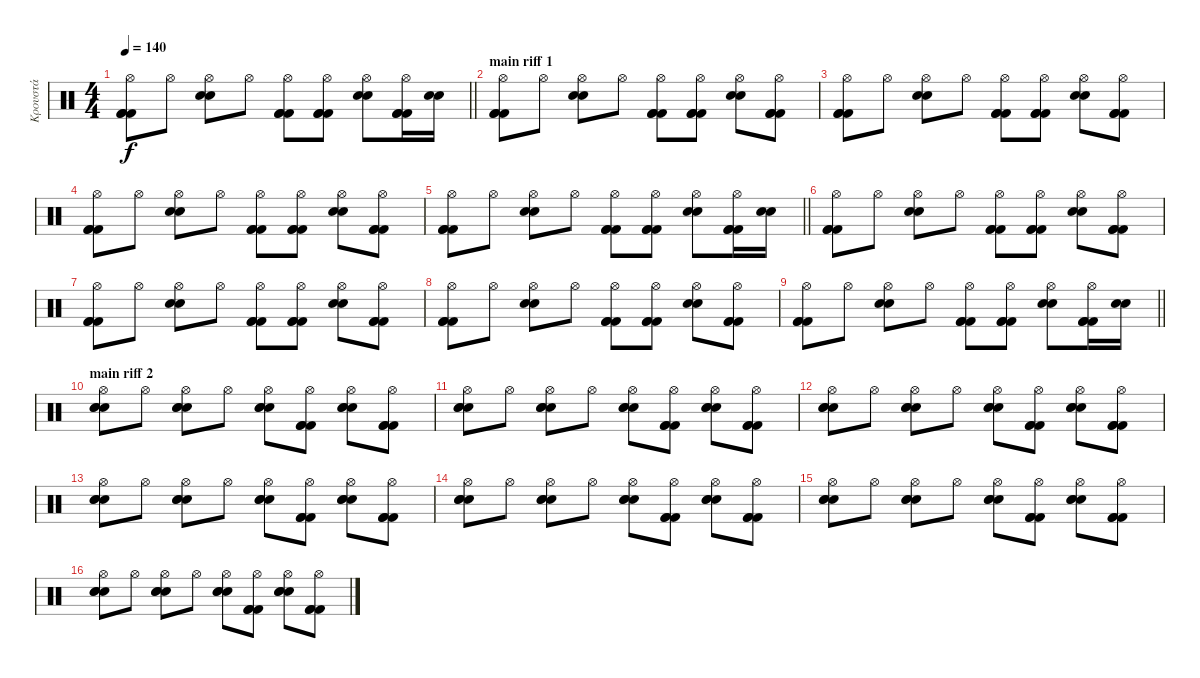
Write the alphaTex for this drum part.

\track ("Κρουστά" "Κρουστά") {instrument percussion}
\staff {score}
\articulation defaults
\ts (4 4)
\tempo 140
\clef neutral
\barLineRight lightlight
\ks c
("Kick (hit) 2" "Hi-Hat (open)" "Kick (hit) 2" "Kick (hit) 2").8{dy f} "Hi-Hat (open)".8 ("Electric Snare (hit)" "Hi-Hat (open)" "Electric Snare (hit)").8 "Hi-Hat (open)".8 ("Kick (hit) 2" "Kick (hit) 2" "Kick (hit) 2" "Hi-Hat (open)").8 ("Kick (hit) 2" "Kick (hit) 2" "Kick (hit) 2" "Hi-Hat (open)").8 ("Electric Snare (hit)" "Electric Snare (hit)" "Hi-Hat (open)").8 ("Kick (hit) 2" "Kick (hit) 2" "Kick (hit) 2" "Hi-Hat (open)").16 ("Electric Snare (hit)" "Electric Snare (hit)").16 |
\section ("" "main riff 1")
("Kick (hit) 2" "Hi-Hat (open)" "Kick (hit) 2" "Kick (hit) 2").8 "Hi-Hat (open)".8 ("Electric Snare (hit)" "Hi-Hat (open)" "Electric Snare (hit)").8 "Hi-Hat (open)".8 ("Kick (hit) 2" "Kick (hit) 2" "Kick (hit) 2" "Hi-Hat (open)").8 ("Kick (hit) 2" "Kick (hit) 2" "Kick (hit) 2" "Hi-Hat (open)").8 ("Electric Snare (hit)" "Electric Snare (hit)" "Hi-Hat (open)").8 ("Kick (hit) 2" "Kick (hit) 2" "Kick (hit) 2" "Hi-Hat (open)").8 |
("Kick (hit) 2" "Hi-Hat (open)" "Kick (hit) 2" "Kick (hit) 2").8 "Hi-Hat (open)".8 ("Electric Snare (hit)" "Hi-Hat (open)" "Electric Snare (hit)").8 "Hi-Hat (open)".8 ("Kick (hit) 2" "Kick (hit) 2" "Kick (hit) 2" "Hi-Hat (open)").8 ("Kick (hit) 2" "Kick (hit) 2" "Kick (hit) 2" "Hi-Hat (open)").8 ("Electric Snare (hit)" "Electric Snare (hit)" "Hi-Hat (open)").8 ("Kick (hit) 2" "Kick (hit) 2" "Kick (hit) 2" "Hi-Hat (open)").8 |
("Kick (hit) 2" "Hi-Hat (open)" "Kick (hit) 2" "Kick (hit) 2").8 "Hi-Hat (open)".8 ("Electric Snare (hit)" "Hi-Hat (open)" "Electric Snare (hit)").8 "Hi-Hat (open)".8 ("Kick (hit) 2" "Kick (hit) 2" "Kick (hit) 2" "Hi-Hat (open)").8 ("Kick (hit) 2" "Kick (hit) 2" "Kick (hit) 2" "Hi-Hat (open)").8 ("Electric Snare (hit)" "Electric Snare (hit)" "Hi-Hat (open)").8 ("Kick (hit) 2" "Kick (hit) 2" "Kick (hit) 2" "Hi-Hat (open)").8 |
\barLineRight lightlight
("Kick (hit) 2" "Hi-Hat (open)" "Kick (hit) 2" "Kick (hit) 2").8 "Hi-Hat (open)".8 ("Electric Snare (hit)" "Hi-Hat (open)" "Electric Snare (hit)").8 "Hi-Hat (open)".8 ("Kick (hit) 2" "Kick (hit) 2" "Kick (hit) 2" "Hi-Hat (open)").8 ("Kick (hit) 2" "Kick (hit) 2" "Kick (hit) 2" "Hi-Hat (open)").8 ("Electric Snare (hit)" "Electric Snare (hit)" "Hi-Hat (open)").8 ("Kick (hit) 2" "Kick (hit) 2" "Kick (hit) 2" "Hi-Hat (open)").16 ("Electric Snare (hit)" "Electric Snare (hit)").16 |
("Kick (hit) 2" "Hi-Hat (open)" "Kick (hit) 2" "Kick (hit) 2").8 "Hi-Hat (open)".8 ("Electric Snare (hit)" "Hi-Hat (open)" "Electric Snare (hit)").8 "Hi-Hat (open)".8 ("Kick (hit) 2" "Kick (hit) 2" "Kick (hit) 2" "Hi-Hat (open)").8 ("Kick (hit) 2" "Kick (hit) 2" "Kick (hit) 2" "Hi-Hat (open)").8 ("Electric Snare (hit)" "Electric Snare (hit)" "Hi-Hat (open)").8 ("Kick (hit) 2" "Kick (hit) 2" "Kick (hit) 2" "Hi-Hat (open)").8 |
("Kick (hit) 2" "Hi-Hat (open)" "Kick (hit) 2" "Kick (hit) 2").8 "Hi-Hat (open)".8 ("Electric Snare (hit)" "Hi-Hat (open)" "Electric Snare (hit)").8 "Hi-Hat (open)".8 ("Kick (hit) 2" "Kick (hit) 2" "Kick (hit) 2" "Hi-Hat (open)").8 ("Kick (hit) 2" "Kick (hit) 2" "Kick (hit) 2" "Hi-Hat (open)").8 ("Electric Snare (hit)" "Electric Snare (hit)" "Hi-Hat (open)").8 ("Kick (hit) 2" "Kick (hit) 2" "Kick (hit) 2" "Hi-Hat (open)").8 |
("Kick (hit) 2" "Hi-Hat (open)" "Kick (hit) 2" "Kick (hit) 2").8 "Hi-Hat (open)".8 ("Electric Snare (hit)" "Hi-Hat (open)" "Electric Snare (hit)").8 "Hi-Hat (open)".8 ("Kick (hit) 2" "Kick (hit) 2" "Kick (hit) 2" "Hi-Hat (open)").8 ("Kick (hit) 2" "Kick (hit) 2" "Kick (hit) 2" "Hi-Hat (open)").8 ("Electric Snare (hit)" "Electric Snare (hit)" "Hi-Hat (open)").8 ("Kick (hit) 2" "Kick (hit) 2" "Kick (hit) 2" "Hi-Hat (open)").8 |
\barLineRight lightlight
("Kick (hit) 2" "Hi-Hat (open)" "Kick (hit) 2" "Kick (hit) 2").8 "Hi-Hat (open)".8 ("Electric Snare (hit)" "Hi-Hat (open)" "Electric Snare (hit)").8 "Hi-Hat (open)".8 ("Kick (hit) 2" "Kick (hit) 2" "Kick (hit) 2" "Hi-Hat (open)").8 ("Kick (hit) 2" "Kick (hit) 2" "Kick (hit) 2" "Hi-Hat (open)").8 ("Electric Snare (hit)" "Electric Snare (hit)" "Hi-Hat (open)").8 ("Kick (hit) 2" "Kick (hit) 2" "Kick (hit) 2" "Hi-Hat (open)").16 ("Electric Snare (hit)" "Electric Snare (hit)").16 |
\section ("" "main riff 2")
("Electric Snare (hit)" "Electric Snare (hit)" "Electric Snare (hit)" "Hi-Hat (open)").8 "Hi-Hat (open)".8 ("Electric Snare (hit)" "Electric Snare (hit)" "Electric Snare (hit)" "Hi-Hat (open)").8 "Hi-Hat (open)".8 ("Electric Snare (hit)" "Electric Snare (hit)" "Electric Snare (hit)" "Hi-Hat (open)").8 ("Kick (hit) 2" "Kick (hit) 2" "Kick (hit) 2" "Hi-Hat (open)").8 ("Electric Snare (hit)" "Electric Snare (hit)" "Electric Snare (hit)" "Hi-Hat (open)").8 ("Kick (hit) 2" "Kick (hit) 2" "Kick (hit) 2" "Hi-Hat (open)").8 |
("Electric Snare (hit)" "Electric Snare (hit)" "Electric Snare (hit)" "Hi-Hat (open)").8 "Hi-Hat (open)".8 ("Electric Snare (hit)" "Electric Snare (hit)" "Electric Snare (hit)" "Hi-Hat (open)").8 "Hi-Hat (open)".8 ("Electric Snare (hit)" "Electric Snare (hit)" "Electric Snare (hit)" "Hi-Hat (open)").8 ("Kick (hit) 2" "Kick (hit) 2" "Kick (hit) 2" "Hi-Hat (open)").8 ("Electric Snare (hit)" "Electric Snare (hit)" "Electric Snare (hit)" "Hi-Hat (open)").8 ("Kick (hit) 2" "Kick (hit) 2" "Kick (hit) 2" "Hi-Hat (open)").8 |
("Electric Snare (hit)" "Electric Snare (hit)" "Electric Snare (hit)" "Hi-Hat (open)").8 "Hi-Hat (open)".8 ("Electric Snare (hit)" "Electric Snare (hit)" "Electric Snare (hit)" "Hi-Hat (open)").8 "Hi-Hat (open)".8 ("Electric Snare (hit)" "Electric Snare (hit)" "Electric Snare (hit)" "Hi-Hat (open)").8 ("Kick (hit) 2" "Kick (hit) 2" "Kick (hit) 2" "Hi-Hat (open)").8 ("Electric Snare (hit)" "Electric Snare (hit)" "Electric Snare (hit)" "Hi-Hat (open)").8 ("Kick (hit) 2" "Kick (hit) 2" "Kick (hit) 2" "Hi-Hat (open)").8 |
("Electric Snare (hit)" "Electric Snare (hit)" "Electric Snare (hit)" "Hi-Hat (open)").8 "Hi-Hat (open)".8 ("Electric Snare (hit)" "Electric Snare (hit)" "Electric Snare (hit)" "Hi-Hat (open)").8 "Hi-Hat (open)".8 ("Electric Snare (hit)" "Electric Snare (hit)" "Electric Snare (hit)" "Hi-Hat (open)").8 ("Kick (hit) 2" "Kick (hit) 2" "Kick (hit) 2" "Hi-Hat (open)").8 ("Electric Snare (hit)" "Electric Snare (hit)" "Electric Snare (hit)" "Hi-Hat (open)").8 ("Kick (hit) 2" "Kick (hit) 2" "Kick (hit) 2" "Hi-Hat (open)").8 |
("Electric Snare (hit)" "Electric Snare (hit)" "Electric Snare (hit)" "Hi-Hat (open)").8 "Hi-Hat (open)".8 ("Electric Snare (hit)" "Electric Snare (hit)" "Electric Snare (hit)" "Hi-Hat (open)").8 "Hi-Hat (open)".8 ("Electric Snare (hit)" "Electric Snare (hit)" "Electric Snare (hit)" "Hi-Hat (open)").8 ("Kick (hit) 2" "Kick (hit) 2" "Kick (hit) 2" "Hi-Hat (open)").8 ("Electric Snare (hit)" "Electric Snare (hit)" "Electric Snare (hit)" "Hi-Hat (open)").8 ("Kick (hit) 2" "Kick (hit) 2" "Kick (hit) 2" "Hi-Hat (open)").8 |
("Electric Snare (hit)" "Electric Snare (hit)" "Electric Snare (hit)" "Hi-Hat (open)").8 "Hi-Hat (open)".8 ("Electric Snare (hit)" "Electric Snare (hit)" "Electric Snare (hit)" "Hi-Hat (open)").8 "Hi-Hat (open)".8 ("Electric Snare (hit)" "Electric Snare (hit)" "Electric Snare (hit)" "Hi-Hat (open)").8 ("Kick (hit) 2" "Kick (hit) 2" "Kick (hit) 2" "Hi-Hat (open)").8 ("Electric Snare (hit)" "Electric Snare (hit)" "Electric Snare (hit)" "Hi-Hat (open)").8 ("Kick (hit) 2" "Kick (hit) 2" "Kick (hit) 2" "Hi-Hat (open)").8 |
("Electric Snare (hit)" "Electric Snare (hit)" "Electric Snare (hit)" "Hi-Hat (open)").8 "Hi-Hat (open)".8 ("Electric Snare (hit)" "Electric Snare (hit)" "Electric Snare (hit)" "Hi-Hat (open)").8 "Hi-Hat (open)".8 ("Electric Snare (hit)" "Electric Snare (hit)" "Electric Snare (hit)" "Hi-Hat (open)").8 ("Kick (hit) 2" "Kick (hit) 2" "Kick (hit) 2" "Hi-Hat (open)").8 ("Electric Snare (hit)" "Electric Snare (hit)" "Electric Snare (hit)" "Hi-Hat (open)").8 ("Kick (hit) 2" "Kick (hit) 2" "Kick (hit) 2" "Hi-Hat (open)").8
